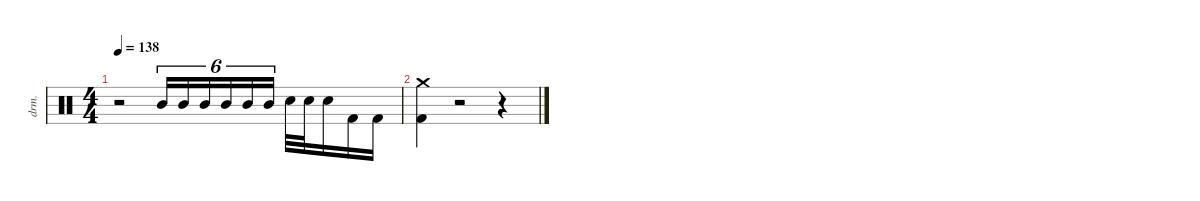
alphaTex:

\defaultSystemsLayout 4
\hideDynamics
\bracketExtendMode nobrackets
\otherSystemsTrackNameOrientation horizontal
\track ("Alex Van Halen " "drm.") {instrument percussion}
\staff {score}
\articulation defaults
\ts (4 4)
\tempo 138
\clef neutral
\ks c
r.2{dy fff beam Down} "Mid Tom (hit)".16{tu (6 4) dy ff beam Up} "Mid Tom (hit)".16{tu (6 4) dy mf beam Up} "Mid Tom (hit)".16{tu (6 4) beam Up} "Mid Tom (hit)".16{tu (6 4) beam Up} "Mid Tom (hit)".16{tu (6 4) dy f beam Up} "Mid Tom (hit)".16{tu (6 4) beam Up} "Snare (hit) 2".32{dy mf beam Down} "Snare (hit) 2".32{beam Down} "Snare (hit) 2".16{beam Down} "Kick (hit) 2".16{dy ff beam Down} "Kick (hit) 2".16{dy f beam Down} |
("Crash medium (hit)" "Kick (hit) 2").4{dy fff beam Down} r.2{beam Down} r.4{beam Down}
